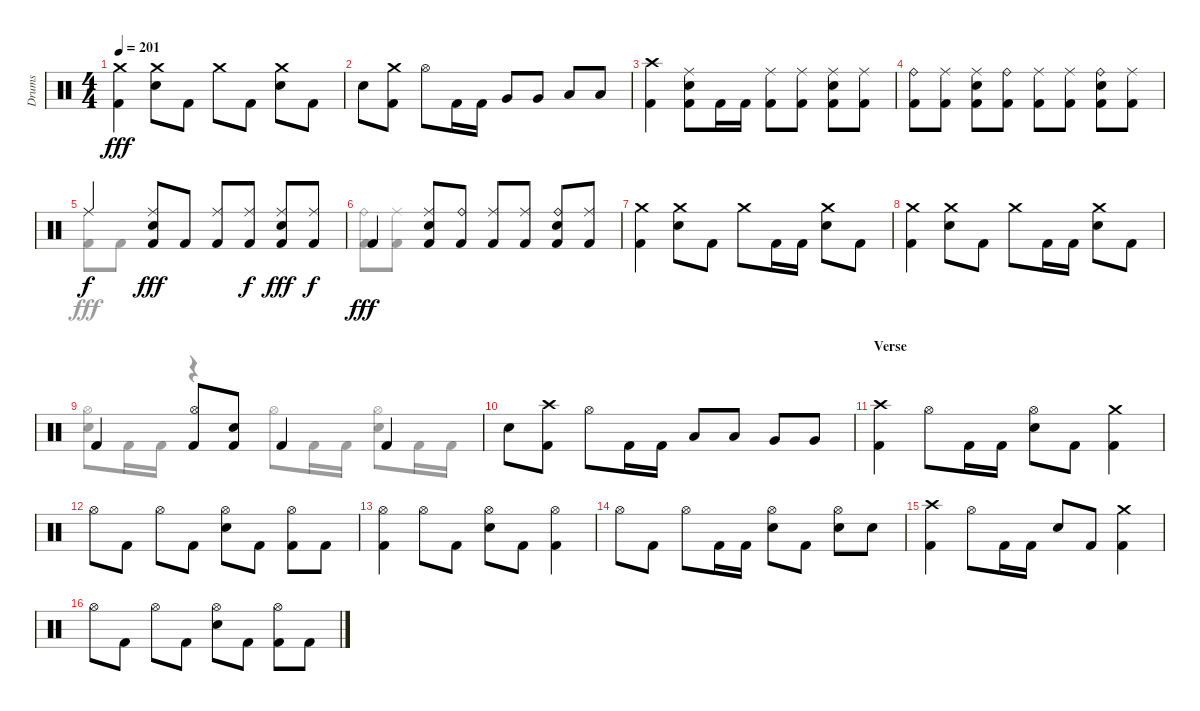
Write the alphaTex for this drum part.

\track ("Drums" "Drums") {instrument percussion}
\staff {score}
\articulation defaults
\voice
\ts (4 4)
\tempo 201
\clef neutral
\ks aminor
("Kick (hit) 2" "Crash medium (hit)").4{dy fff} ("Snare (hit) 2" "Crash medium (hit)").8 "Kick (hit) 2".8 "Crash medium (hit)".8 "Kick (hit) 2".8 ("Snare (hit) 2" "Crash medium (hit)").8 "Kick (hit) 2".8 |
"Snare (hit) 2".8 ("Kick (hit) 2" "Crash medium (hit)").8 "Hi-Hat (open)".8 "Kick (hit) 2".16 "Kick (hit) 2".16 "Very Low Tom (hit)".8 "Very Low Tom (hit)".8 "Low Floor Tom (hit)".8 "Low Floor Tom (hit)".8 |
("Kick (hit) 2" "Crash high (hit)").4 ("Kick (hit) 2" "Snare (hit) 2" "Ride (middle)").8 "Kick (hit) 2".16 "Kick (hit) 2".16 ("Kick (hit) 2" "Ride (middle)").8 ("Kick (hit) 2" "Ride (middle)").8 ("Kick (hit) 2" "Snare (hit) 2" "Ride (middle)").8 ("Kick (hit) 2" "Ride (middle)").8 |
("Kick (hit) 2" "Ride (bell)").8 ("Kick (hit) 2" "Ride (middle)").8 ("Kick (hit) 2" "Snare (hit) 2" "Ride (middle)").8 ("Kick (hit) 2" "Ride (bell)").8 ("Kick (hit) 2" "Ride (middle)").8 ("Kick (hit) 2" "Ride (middle)").8 ("Kick (hit) 2" "Snare (hit) 2" "Ride (bell)").8 ("Kick (hit) 2" "Ride (middle)").8 |
"Ride (middle)".4{dy f} ("Kick (hit) 2" "Snare (hit) 2" "Ride (middle)").8{dy fff} "Kick (hit) 2".8 ("Ride (middle)" "Kick (hit) 2").8 ("Kick (hit) 2" "Ride (middle)").8{dy f} ("Kick (hit) 2" "Ride (middle)" "Snare (hit) 2").8{dy fff} ("Kick (hit) 2" "Ride (middle)").8{dy f} |
"Kick (hit) 2".4{dy fff} ("Snare (hit) 2" "Ride (middle)" "Kick (hit) 2").8 ("Kick (hit) 2" "Ride (bell)").8 ("Kick (hit) 2" "Ride (middle)").8 ("Kick (hit) 2" "Ride (middle)").8 ("Ride (bell)" "Snare (hit) 2" "Kick (hit) 2").8 ("Ride (middle)" "Kick (hit) 2").8 |
("Kick (hit) 2" "Crash medium (hit)").4 ("Snare (hit) 2" "Crash medium (hit)").8 "Kick (hit) 2".8 "Crash medium (hit)".8 "Kick (hit) 2".16 "Kick (hit) 2".16 ("Snare (hit) 2" "Crash medium (hit)").8 "Kick (hit) 2".8 |
("Kick (hit) 2" "Crash medium (hit)").4 ("Snare (hit) 2" "Crash medium (hit)").8 "Kick (hit) 2".8 "Crash medium (hit)".8 "Kick (hit) 2".16 "Kick (hit) 2".16 ("Snare (hit) 2" "Crash medium (hit)").8 "Kick (hit) 2".8 |
"Kick (hit) 2".4 ("Hi-Hat (open)" "Kick (hit) 2").8 ("Snare (hit) 2" "Kick (hit) 2").8 "Kick (hit) 2".4 "Kick (hit) 2".4 |
"Snare (hit) 2".8 ("Crash high (hit)" "Kick (hit) 2").8 "Hi-Hat (open)".8 "Kick (hit) 2".16 "Kick (hit) 2".16 "Low Tom (hit)".8 "Low Tom (hit)".8 "Very Low Tom (hit)".8 "Very Low Tom (hit)".8 |
\section ("" "Verse")
("Kick (hit) 2" "Crash high (hit)").4 "Hi-Hat (open)".8 "Kick (hit) 2".16 "Kick (hit) 2".16 ("Hi-Hat (open)" "Snare (hit) 2").8 "Kick (hit) 2".8 ("Kick (hit) 2" "Crash medium (hit)").4 |
"Hi-Hat (open)".8 "Kick (hit) 2".8 "Hi-Hat (open)".8 "Kick (hit) 2".8 ("Hi-Hat (open)" "Snare (hit) 2").8 "Kick (hit) 2".8 ("Kick (hit) 2" "Hi-Hat (open)").8 "Kick (hit) 2".8 |
("Kick (hit) 2" "Hi-Hat (open)").4 "Hi-Hat (open)".8 "Kick (hit) 2".8 ("Snare (hit) 2" "Hi-Hat (open)").8 "Kick (hit) 2".8 ("Hi-Hat (open)" "Kick (hit) 2").4 |
"Hi-Hat (open)".8 "Kick (hit) 2".8 "Hi-Hat (open)".8 "Kick (hit) 2".16 "Kick (hit) 2".16 ("Hi-Hat (open)" "Snare (hit) 2").8 "Kick (hit) 2".8 ("Hi-Hat (open)" "Snare (hit) 2").8 "Snare (hit) 2".8 |
("Crash high (hit)" "Kick (hit) 2").4 "Hi-Hat (open)".8 "Kick (hit) 2".16 "Kick (hit) 2".16 "Snare (hit) 2".8 "Kick (hit) 2".8 ("Crash medium (hit)" "Kick (hit) 2").4 |
"Hi-Hat (open)".8 "Kick (hit) 2".8 "Hi-Hat (open)".8 "Kick (hit) 2".8 ("Snare (hit) 2" "Hi-Hat (open)").8 "Kick (hit) 2".8 ("Hi-Hat (open)" "Kick (hit) 2").8 "Kick (hit) 2".8
\voice
\clef neutral
\ottava regular
\simile none
\ks aminor
|
|
|
|
("Kick (hit) 2" "Ride (middle)").8 "Kick (hit) 2".8 |
("Kick (hit) 2" "Ride (bell)").8 ("Kick (hit) 2" "Ride (middle)").8 |
|
|
("Snare (hit) 2" "Hi-Hat (open)").8 "Kick (hit) 2".16 "Kick (hit) 2".16 r.4 "Hi-Hat (open)".8 "Kick (hit) 2".16 "Kick (hit) 2".16 ("Hi-Hat (open)" "Snare (hit) 2").8 "Kick (hit) 2".16 "Kick (hit) 2".16 |
|
|
|
|
|
|
